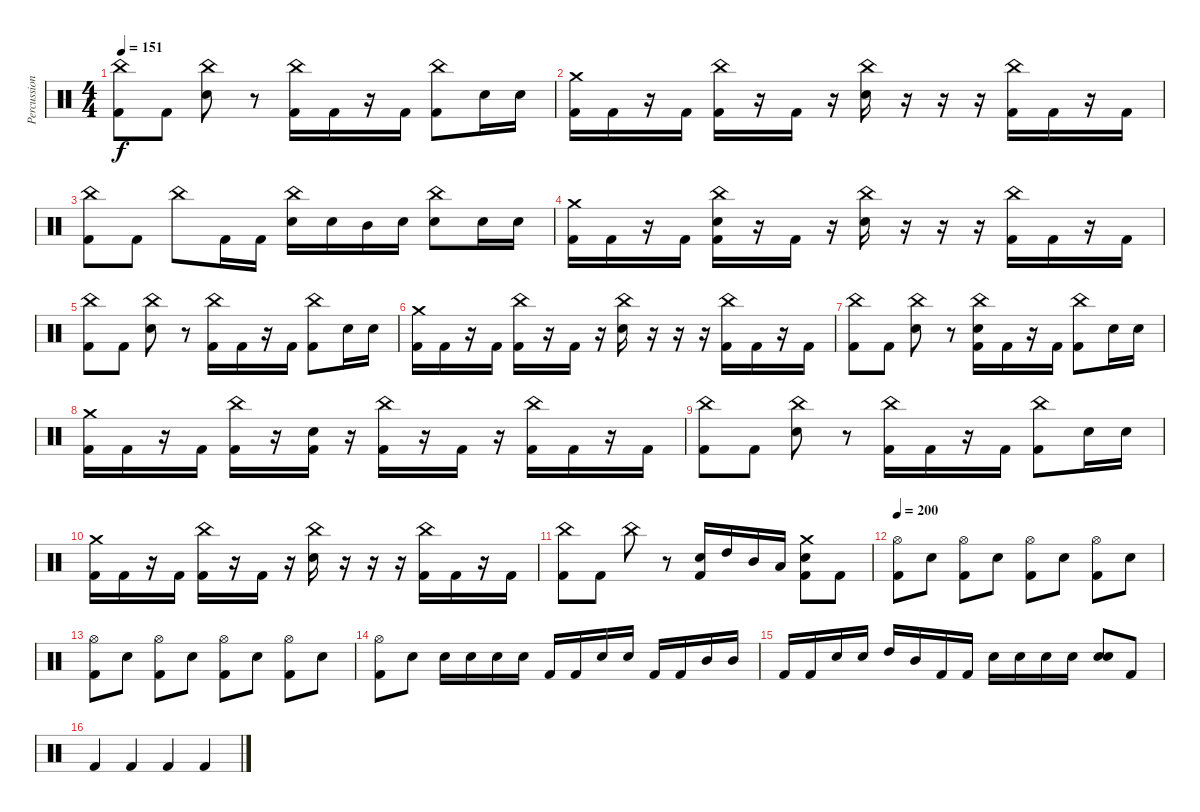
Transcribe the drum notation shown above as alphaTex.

\track ("Percussion" "Percussion") {instrument percussion}
\staff {score}
\articulation defaults
\ts (4 4)
\tempo 151
\clef neutral
\ks c
("China (hit)" "Kick (hit) 2").8{dy f} "Kick (hit) 2".8 ("China (hit)" "Electric Snare (hit)").8 r.8 ("China (hit)" "Kick (hit) 2").16 "Kick (hit) 2".16 r.16 "Kick (hit) 2".16 ("China (hit)" "Kick (hit) 2").8 "Electric Snare (hit)".16 "Electric Snare (hit)".16 |
("Crash medium (hit)" "Kick (hit) 2").16 "Kick (hit) 2".16 r.16 "Kick (hit) 2".16 ("China (hit)" "Kick (hit) 2").16 r.16 "Kick (hit) 2".16 r.16 ("China (hit)" "Electric Snare (hit)").16 r.16 r.16 r.16 ("China (hit)" "Kick (hit) 2").16 "Kick (hit) 2".16 r.16 "Kick (hit) 2".16 |
("China (hit)" "Kick (hit) 2").8 "Kick (hit) 2".8 "China (hit)".8 "Kick (hit) 2".16 "Kick (hit) 2".16 ("China (hit)" "Electric Snare (hit)").16 "Electric Snare (hit)".16 "Mid Tom (hit)".16 "Electric Snare (hit)".16 ("China (hit)" "Electric Snare (hit)").8 "Electric Snare (hit)".16 "Electric Snare (hit)".16 |
("Crash medium (hit)" "Kick (hit) 2").16 "Kick (hit) 2".16 r.16 "Kick (hit) 2".16 ("China (hit)" "Electric Snare (hit)" "Kick (hit) 2").16 r.16 "Kick (hit) 2".16 r.16 ("China (hit)" "Electric Snare (hit)").16 r.16 r.16 r.16 ("China (hit)" "Kick (hit) 2").16 "Kick (hit) 2".16 r.16 "Kick (hit) 2".16 |
("China (hit)" "Kick (hit) 2").8 "Kick (hit) 2".8 ("China (hit)" "Electric Snare (hit)").8 r.8 ("China (hit)" "Kick (hit) 2").16 "Kick (hit) 2".16 r.16 "Kick (hit) 2".16 ("China (hit)" "Kick (hit) 2").8 "Electric Snare (hit)".16 "Electric Snare (hit)".16 |
("Crash medium (hit)" "Kick (hit) 2").16 "Kick (hit) 2".16 r.16 "Kick (hit) 2".16 ("China (hit)" "Kick (hit) 2").16 r.16 "Kick (hit) 2".16 r.16 ("China (hit)" "Electric Snare (hit)").16 r.16 r.16 r.16 ("China (hit)" "Kick (hit) 2").16 "Kick (hit) 2".16 r.16 "Kick (hit) 2".16 |
("China (hit)" "Kick (hit) 2").8 "Kick (hit) 2".8 ("China (hit)" "Electric Snare (hit)").8 r.8 ("China (hit)" "Electric Snare (hit)" "Kick (hit) 2").16 "Kick (hit) 2".16 r.16 "Kick (hit) 2".16 ("China (hit)" "Kick (hit) 2").8 "Electric Snare (hit)".16 "Electric Snare (hit)".16 |
("Crash medium (hit)" "Kick (hit) 2").16 "Kick (hit) 2".16 r.16 "Kick (hit) 2".16 ("China (hit)" "Kick (hit) 2").16 r.16 ("Electric Snare (hit)" "Kick (hit) 2").16 r.16 ("China (hit)" "Kick (hit) 2").16 r.16 "Kick (hit) 2".16 r.16 ("China (hit)" "Kick (hit) 2").16 "Kick (hit) 2".16 r.16 "Kick (hit) 2".16 |
("China (hit)" "Kick (hit) 2").8 "Kick (hit) 2".8 ("China (hit)" "Electric Snare (hit)").8 r.8 ("China (hit)" "Kick (hit) 2").16 "Kick (hit) 2".16 r.16 "Kick (hit) 2".16 ("China (hit)" "Kick (hit) 2").8 "Electric Snare (hit)".16 "Electric Snare (hit)".16 |
("Crash medium (hit)" "Kick (hit) 2").16 "Kick (hit) 2".16 r.16 "Kick (hit) 2".16 ("China (hit)" "Kick (hit) 2").16 r.16 "Kick (hit) 2".16 r.16 ("China (hit)" "Electric Snare (hit)").16 r.16 r.16 r.16 ("China (hit)" "Kick (hit) 2").16 "Kick (hit) 2".16 r.16 "Kick (hit) 2".16 |
("China (hit)" "Kick (hit) 2").8 "Kick (hit) 2".8 "China (hit)".8 r.8 ("Electric Snare (hit)" "Kick (hit) 2").16 "High Tom (hit)".16 "Mid Tom (hit)".16 "Low Tom (hit)".16 ("Crash medium (hit)" "Electric Snare (hit)" "Kick (hit) 2").8 "Kick (hit) 2".8 |
\tempo 200
("Hi-Hat (open)" "Kick (hit) 2").8 "Electric Snare (hit)".8 ("Hi-Hat (open)" "Kick (hit) 2").8 "Electric Snare (hit)".8 ("Hi-Hat (open)" "Kick (hit) 2").8 "Electric Snare (hit)".8 ("Hi-Hat (open)" "Kick (hit) 2").8 "Electric Snare (hit)".8 |
("Hi-Hat (open)" "Kick (hit) 2").8 "Electric Snare (hit)".8 ("Hi-Hat (open)" "Kick (hit) 2").8 "Electric Snare (hit)".8 ("Hi-Hat (open)" "Kick (hit) 2").8 "Electric Snare (hit)".8 ("Hi-Hat (open)" "Kick (hit) 2").8 "Electric Snare (hit)".8 |
("Hi-Hat (open)" "Kick (hit) 2").8 "Electric Snare (hit)".8 "Electric Snare (hit)".16 "Electric Snare (hit)".16 "Electric Snare (hit)".16 "Electric Snare (hit)".16 "Kick (hit) 2".16 "Kick (hit) 2".16 "Electric Snare (hit)".16 "Electric Snare (hit)".16 "Kick (hit) 2".16 "Kick (hit) 2".16 "Mid Tom (hit)".16 "Mid Tom (hit)".16 |
"Kick (hit) 2".16 "Kick (hit) 2".16 "Electric Snare (hit)".16 "Electric Snare (hit)".16 "High Tom (hit)".16 "Mid Tom (hit)".16 "Kick (hit) 2".16 "Kick (hit) 2".16 "Electric Snare (hit)".16 "Electric Snare (hit)".16 "Electric Snare (hit)".16 "Electric Snare (hit)".16 ("Electric Snare (hit)" "Electric Snare (hit)").8{bu 480} "Kick (hit) 2".8 |
"Kick (hit) 2".4 "Kick (hit) 2".4 "Kick (hit) 2".4 "Kick (hit) 2".4
